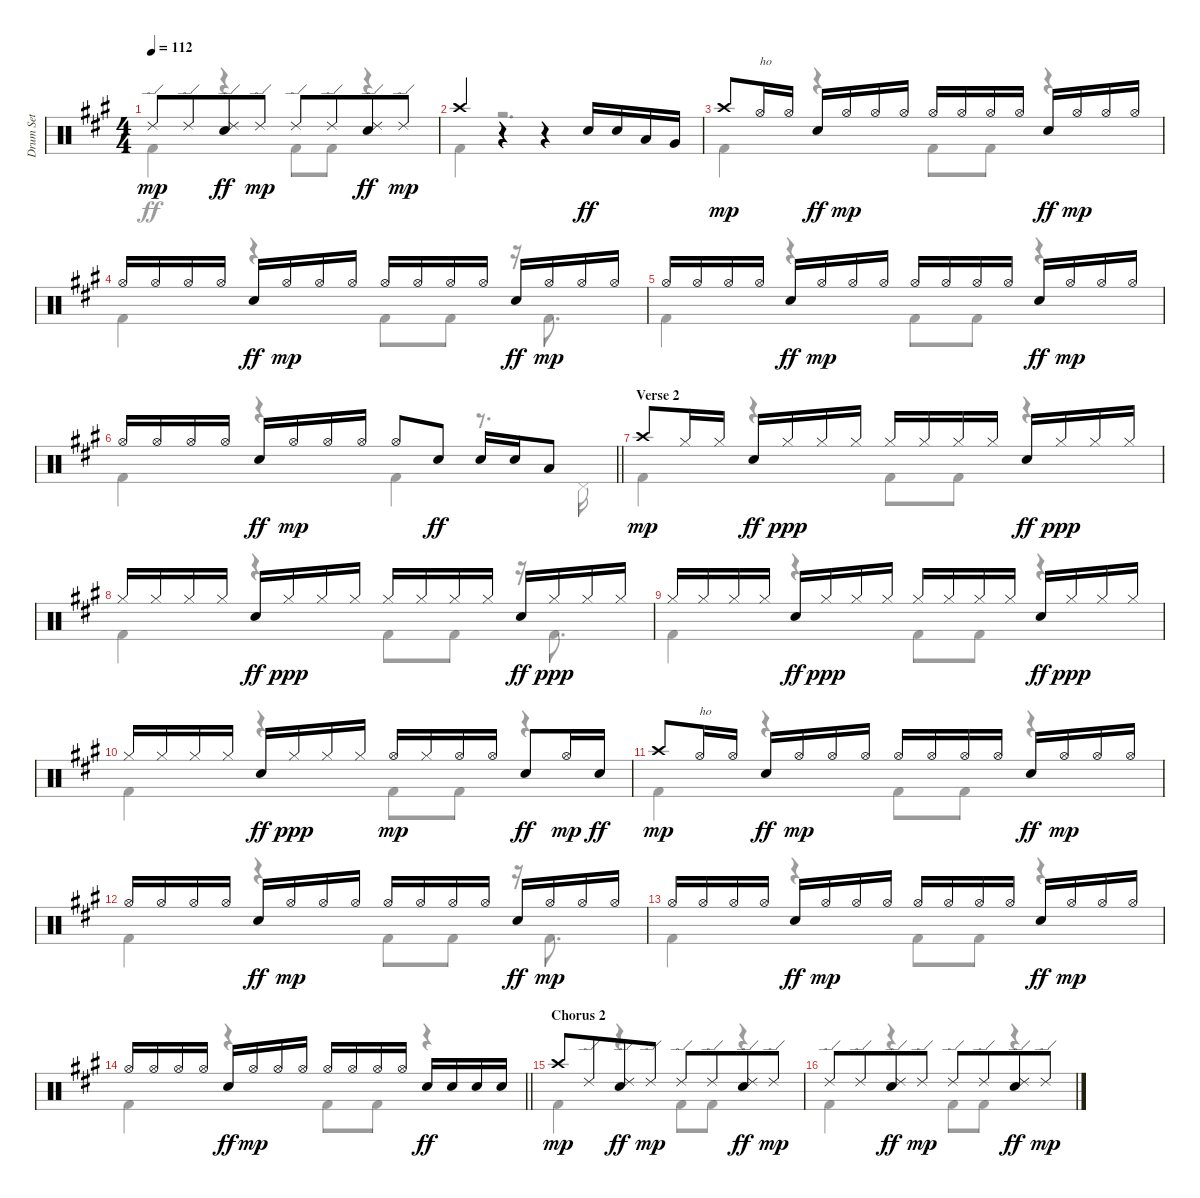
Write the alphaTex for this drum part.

\track ("Drum Set" "Drum Set") {instrument percussion}
\staff {score}
\articulation defaults
\voice
\ts (4 4)
\tempo 112
\clef neutral
\ks f#minor "Ride (edge) 2".8{dy mp} "Ride (edge) 2".8{beam merge}
("Ride (edge) 2" "Electric Snare (hit)").8{dy ff} "Ride (edge) 2".8{dy mp} "Ride (edge) 2".8 "Ride (edge) 2".8{beam merge} ("Ride (edge) 2" "Electric Snare (hit)").8{dy ff} "Ride (edge) 2".8{dy mp} |
"Crash high (hit)".4 r.4 r.4 "Electric Snare (hit)".16{dy ff beam Up} "Electric Snare (hit)".16{beam Up} "Low Tom (hit)".16{beam Up} "Very Low Tom (hit)".16{beam Up} |
"Crash high (hit)".8{dy mp} "Hi-Hat (open)".16{txt "ho"} "Hi-Hat (open)".16 "Electric Snare (hit)".16{dy ff} "Hi-Hat (open)".16{dy mp} "Hi-Hat (open)".16 "Hi-Hat (open)".16 "Hi-Hat (open)".16 "Hi-Hat (open)".16 "Hi-Hat (open)".16 "Hi-Hat (open)".16 "Electric Snare (hit)".16{dy ff} "Hi-Hat (open)".16{dy mp} "Hi-Hat (open)".16 "Hi-Hat (open)".16 |
"Hi-Hat (open)".16 "Hi-Hat (open)".16 "Hi-Hat (open)".16 "Hi-Hat (open)".16 "Electric Snare (hit)".16{dy ff} "Hi-Hat (open)".16{dy mp} "Hi-Hat (open)".16 "Hi-Hat (open)".16 "Hi-Hat (open)".16 "Hi-Hat (open)".16 "Hi-Hat (open)".16 "Hi-Hat (open)".16 "Electric Snare (hit)".16{dy ff} "Hi-Hat (open)".16{dy mp} "Hi-Hat (open)".16 "Hi-Hat (open)".16 |
"Hi-Hat (open)".16 "Hi-Hat (open)".16 "Hi-Hat (open)".16 "Hi-Hat (open)".16 "Electric Snare (hit)".16{dy ff} "Hi-Hat (open)".16{dy mp} "Hi-Hat (open)".16 "Hi-Hat (open)".16 "Hi-Hat (open)".16 "Hi-Hat (open)".16 "Hi-Hat (open)".16 "Hi-Hat (open)".16 "Electric Snare (hit)".16{dy ff} "Hi-Hat (open)".16{dy mp} "Hi-Hat (open)".16 "Hi-Hat (open)".16 |
\barLineRight lightlight "Hi-Hat (open)".16 "Hi-Hat (open)".16 "Hi-Hat (open)".16 "Hi-Hat (open)".16 "Electric Snare (hit)".16{dy ff} "Hi-Hat (open)".16{dy mp} "Hi-Hat (open)".16 "Hi-Hat (open)".16 "Hi-Hat (open)".8 "Electric Snare (hit)".8{dy ff} "Electric Snare (hit)".16 "Electric Snare (hit)".16 "Low Tom (hit)".8
|
\section ("" "Verse 2")
"Crash high (hit)".8{dy mp} "Hi-Hat (closed)".16 "Hi-Hat (closed)".16 "Electric Snare (hit)".16{dy ff} "Hi-Hat (closed)".16{dy ppp} "Hi-Hat (closed)".16 "Hi-Hat (closed)".16 "Hi-Hat (closed)".16 "Hi-Hat (closed)".16 "Hi-Hat (closed)".16 "Hi-Hat (closed)".16 "Electric Snare (hit)".16{dy ff} "Hi-Hat (closed)".16{dy ppp} "Hi-Hat (closed)".16 "Hi-Hat (closed)".16 |
"Hi-Hat (closed)".16 "Hi-Hat (closed)".16 "Hi-Hat (closed)".16 "Hi-Hat (closed)".16 "Electric Snare (hit)".16{dy ff} "Hi-Hat (closed)".16{dy ppp} "Hi-Hat (closed)".16 "Hi-Hat (closed)".16 "Hi-Hat (closed)".16 "Hi-Hat (closed)".16 "Hi-Hat (closed)".16 "Hi-Hat (closed)".16 "Electric Snare (hit)".16{dy ff} "Hi-Hat (closed)".16{dy ppp} "Hi-Hat (closed)".16 "Hi-Hat (closed)".16 |
"Hi-Hat (closed)".16 "Hi-Hat (closed)".16 "Hi-Hat (closed)".16 "Hi-Hat (closed)".16 "Electric Snare (hit)".16{dy ff} "Hi-Hat (closed)".16{dy ppp} "Hi-Hat (closed)".16 "Hi-Hat (closed)".16 "Hi-Hat (closed)".16 "Hi-Hat (closed)".16 "Hi-Hat (closed)".16 "Hi-Hat (closed)".16 "Electric Snare (hit)".16{dy ff} "Hi-Hat (closed)".16{dy ppp} "Hi-Hat (closed)".16 "Hi-Hat (closed)".16 |
"Hi-Hat (closed)".16 "Hi-Hat (closed)".16 "Hi-Hat (closed)".16 "Hi-Hat (closed)".16 "Electric Snare (hit)".16{dy ff} "Hi-Hat (closed)".16{dy ppp} "Hi-Hat (closed)".16 "Hi-Hat (closed)".16 "Hi-Hat (open)".16{dy mp} "Hi-Hat (closed)".16 "Hi-Hat (open)".16 "Hi-Hat (open)".16 "Electric Snare (hit)".8{dy ff} "Hi-Hat (open)".16{dy mp} "Electric Snare (hit)".16{dy ff} |
"Crash high (hit)".8{dy mp} "Hi-Hat (open)".16{txt "ho"} "Hi-Hat (open)".16 "Electric Snare (hit)".16{dy ff} "Hi-Hat (open)".16{dy mp} "Hi-Hat (open)".16 "Hi-Hat (open)".16 "Hi-Hat (open)".16 "Hi-Hat (open)".16 "Hi-Hat (open)".16 "Hi-Hat (open)".16 "Electric Snare (hit)".16{dy ff} "Hi-Hat (open)".16{dy mp} "Hi-Hat (open)".16 "Hi-Hat (open)".16 |
"Hi-Hat (open)".16 "Hi-Hat (open)".16 "Hi-Hat (open)".16 "Hi-Hat (open)".16 "Electric Snare (hit)".16{dy ff} "Hi-Hat (open)".16{dy mp} "Hi-Hat (open)".16 "Hi-Hat (open)".16 "Hi-Hat (open)".16 "Hi-Hat (open)".16 "Hi-Hat (open)".16 "Hi-Hat (open)".16 "Electric Snare (hit)".16{dy ff} "Hi-Hat (open)".16{dy mp} "Hi-Hat (open)".16 "Hi-Hat (open)".16 |
"Hi-Hat (open)".16 "Hi-Hat (open)".16 "Hi-Hat (open)".16 "Hi-Hat (open)".16 "Electric Snare (hit)".16{dy ff} "Hi-Hat (open)".16{dy mp} "Hi-Hat (open)".16 "Hi-Hat (open)".16 "Hi-Hat (open)".16 "Hi-Hat (open)".16 "Hi-Hat (open)".16 "Hi-Hat (open)".16 "Electric Snare (hit)".16{dy ff} "Hi-Hat (open)".16{dy mp} "Hi-Hat (open)".16 "Hi-Hat (open)".16 |
\barLineRight lightlight "Hi-Hat (open)".16 "Hi-Hat (open)".16 "Hi-Hat (open)".16 "Hi-Hat (open)".16 "Electric Snare (hit)".16{dy ff} "Hi-Hat (open)".16{dy mp} "Hi-Hat (open)".16 "Hi-Hat (open)".16 "Hi-Hat (open)".16 "Hi-Hat (open)".16 "Hi-Hat (open)".16 "Hi-Hat (open)".16 "Electric Snare (hit)".16{dy ff} "Electric Snare (hit)".16 "Electric Snare (hit)".16 "Electric Snare (hit)".16
|
\section ("" "Chorus 2")
"Crash high (hit)".8{dy mp} "Ride (edge) 2".8{beam merge} ("Ride (edge) 2" "Electric Snare (hit)").8{dy ff} "Ride (edge) 2".8{dy mp} "Ride (edge) 2".8 "Ride (edge) 2".8{beam merge} ("Ride (edge) 2" "Electric Snare (hit)").8{dy ff} "Ride (edge) 2".8{dy mp} |
"Ride (edge) 2".8 "Ride (edge) 2".8{beam merge} ("Ride (edge) 2" "Electric Snare (hit)").8{dy ff} "Ride (edge) 2".8{dy mp} "Ride (edge) 2".8 "Ride (edge) 2".8{beam merge} ("Ride (edge) 2" "Electric Snare (hit)").8{dy ff} "Ride (edge) 2".8{dy mp}
\voice
\clef neutral
\ottava regular
\simile none
\ks f#minor "Kick (hit) 2".4{dy ff}
r.4 "Kick (hit) 2".8 "Kick (hit) 2".8 r.4 |
"Kick (hit) 2".4 r.2{d} |
"Kick (hit) 2".4 r.4 "Kick (hit) 2".8 "Kick (hit) 2".8 r.4 |
"Kick (hit) 2".4 r.4 "Kick (hit) 2".8 "Kick (hit) 2".8 r.16 "Kick (hit) 2".8{d} |
"Kick (hit) 2".4 r.4 "Kick (hit) 2".8 "Kick (hit) 2".8 r.4 |
\barLineRight lightlight "Kick (hit) 2".4
r.4 "Kick (hit) 2".4 r.8{d} "Pedal Hi-Hat (hit)".16 |
"Kick (hit) 2".4 r.4 "Kick (hit) 2".8 "Kick (hit) 2".8 r.4 |
"Kick (hit) 2".4 r.4 "Kick (hit) 2".8 "Kick (hit) 2".8 r.16 "Kick (hit) 2".8{d} |
"Kick (hit) 2".4 r.4 "Kick (hit) 2".8 "Kick (hit) 2".8 r.4 |
"Kick (hit) 2".4 r.4 "Kick (hit) 2".8 "Kick (hit) 2".8 r.4 |
"Kick (hit) 2".4 r.4 "Kick (hit) 2".8 "Kick (hit) 2".8 r.4 |
"Kick (hit) 2".4 r.4 "Kick (hit) 2".8 "Kick (hit) 2".8 r.16 "Kick (hit) 2".8{d} |
"Kick (hit) 2".4 r.4 "Kick (hit) 2".8 "Kick (hit) 2".8 r.4 |
\barLineRight lightlight "Kick (hit) 2".4
r.4 "Kick (hit) 2".8 "Kick (hit) 2".8 r.4 |
"Kick (hit) 2".4 r.4 "Kick (hit) 2".8 "Kick (hit) 2".8 r.4 |
"Kick (hit) 2".4 r.4 "Kick (hit) 2".8 "Kick (hit) 2".8 r.4
